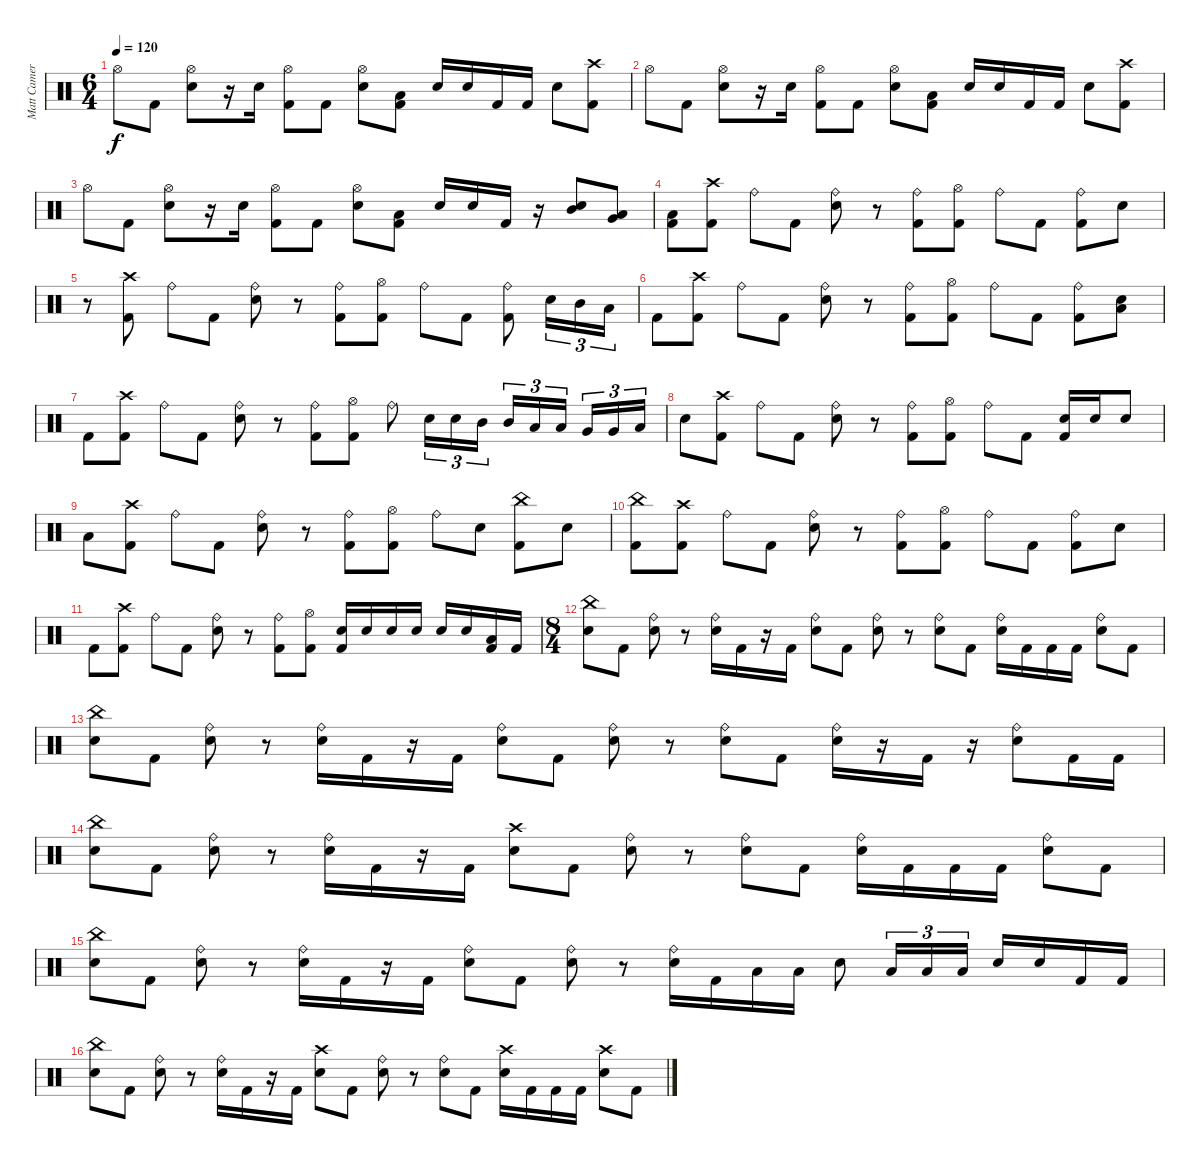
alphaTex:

\track ("Matt Cameron (Drums)" "Matt Camer") {instrument percussion}
\staff {score}
\articulation defaults
\ts (6 4)
\tempo 120
\clef neutral
\ks c "Hi-Hat (open)".8{dy f} "Kick (hit) 2".8
("Hi-Hat (open)" "Electric Snare (hit)").8 r.16 "Electric Snare (hit)".16 ("Hi-Hat (open)" "Kick (hit) 2").8 "Kick (hit) 2".8 ("Hi-Hat (open)" "Electric Snare (hit)").8 ("Low Floor Tom (hit)" "Kick (hit) 2").8 "Electric Snare (hit)".16 "Electric Snare (hit)".16 "Kick (hit) 2".16 "Kick (hit) 2".16 "Electric Snare (hit)".8 ("Crash high (hit)" "Kick (hit) 2").8 |
"Hi-Hat (open)".8 "Kick (hit) 2".8 ("Hi-Hat (open)" "Electric Snare (hit)").8 r.16 "Electric Snare (hit)".16 ("Hi-Hat (open)" "Kick (hit) 2").8 "Kick (hit) 2".8 ("Hi-Hat (open)" "Electric Snare (hit)").8 ("Low Floor Tom (hit)" "Kick (hit) 2").8 "Electric Snare (hit)".16 "Electric Snare (hit)".16 "Kick (hit) 2".16 "Kick (hit) 2".16 "Electric Snare (hit)".8 ("Crash high (hit)" "Kick (hit) 2").8 |
"Hi-Hat (open)".8 "Kick (hit) 2".8 ("Hi-Hat (open)" "Electric Snare (hit)").8 r.16 "Electric Snare (hit)".16 ("Hi-Hat (open)" "Kick (hit) 2").8 "Kick (hit) 2".8 ("Hi-Hat (open)" "Electric Snare (hit)").8 ("Low Floor Tom (hit)" "Kick (hit) 2").8 "Electric Snare (hit)".16 "Electric Snare (hit)".16 "Kick (hit) 2".16 r.16 ("Mid Tom (hit)" "Electric Snare (hit)").8 ("Low Tom (hit)" "Very Low Tom (hit)").8 |
("Low Tom (hit)" "Kick (hit) 2").8 ("Crash high (hit)" "Kick (hit) 2").8 "Ride (bell)".8 "Kick (hit) 2".8 ("Ride (bell)" "Electric Snare (hit)").8 r.8 ("Ride (bell)" "Kick (hit) 2").8 ("Hi-Hat (open)" "Kick (hit) 2").8 "Ride (bell)".8 "Kick (hit) 2".8 ("Ride (bell)" "Kick (hit) 2").8 "Electric Snare (hit)".8 |
r.8 ("Crash high (hit)" "Kick (hit) 2").8 "Ride (bell)".8 "Kick (hit) 2".8 ("Ride (bell)" "Electric Snare (hit)").8 r.8 ("Ride (bell)" "Kick (hit) 2").8 ("Hi-Hat (open)" "Kick (hit) 2").8 "Ride (bell)".8 "Kick (hit) 2".8 ("Ride (bell)" "Kick (hit) 2").8 "Electric Snare (hit)".16{tu (3 2)} "Mid Tom (hit)".16{tu (3 2)} "Low Tom (hit)".16{tu (3 2)} |
"Kick (hit) 2".8 ("Crash high (hit)" "Kick (hit) 2").8 "Ride (bell)".8 "Kick (hit) 2".8 ("Ride (bell)" "Electric Snare (hit)").8 r.8 ("Ride (bell)" "Kick (hit) 2").8 ("Hi-Hat (open)" "Kick (hit) 2").8 "Ride (bell)".8 "Kick (hit) 2".8 ("Ride (bell)" "Kick (hit) 2").8 ("Electric Snare (hit)" "Low Floor Tom (hit)").8 |
"Kick (hit) 2".8 ("Crash high (hit)" "Kick (hit) 2").8 "Ride (bell)".8 "Kick (hit) 2".8 ("Ride (bell)" "Electric Snare (hit)").8 r.8 ("Ride (bell)" "Kick (hit) 2").8 ("Hi-Hat (open)" "Kick (hit) 2").8 "Ride (bell)".8 "Electric Snare (hit)".16{tu (3 2)} "Electric Snare (hit)".16{tu (3 2)} "Mid Tom (hit)".16{tu (3 2)} "Mid Tom (hit)".16{tu (3 2)} "Low Tom (hit)".16{tu (3 2)} "Low Tom (hit)".16{tu (3 2)} "Very Low Tom (hit)".16{tu (3 2)} "Very Low Tom (hit)".16{tu (3 2)} "Low Floor Tom (hit)".16{tu (3 2)} |
"Electric Snare (hit)".8 ("Crash high (hit)" "Kick (hit) 2").8 "Ride (bell)".8 "Kick (hit) 2".8 ("Ride (bell)" "Electric Snare (hit)").8 r.8 ("Ride (bell)" "Kick (hit) 2").8 ("Hi-Hat (open)" "Kick (hit) 2").8 "Ride (bell)".8 "Kick (hit) 2".8 ("Electric Snare (hit)" "Kick (hit) 2").16 "Electric Snare (hit)".16 "Electric Snare (hit)".8 |
"Low Floor Tom (hit)".8 ("Crash high (hit)" "Kick (hit) 2").8 "Ride (bell)".8 "Kick (hit) 2".8 ("Ride (bell)" "Electric Snare (hit)").8 r.8 ("Ride (bell)" "Kick (hit) 2").8 ("Hi-Hat (open)" "Kick (hit) 2").8 "Ride (bell)".8 "Electric Snare (hit)".8 ("China (hit)" "Kick (hit) 2").8 "Electric Snare (hit)".8 |
("China (hit)" "Kick (hit) 2").8 ("Crash high (hit)" "Kick (hit) 2").8 "Ride (bell)".8 "Kick (hit) 2".8 ("Ride (bell)" "Electric Snare (hit)").8 r.8 ("Ride (bell)" "Kick (hit) 2").8 ("Hi-Hat (open)" "Kick (hit) 2").8 "Ride (bell)".8 "Kick (hit) 2".8 ("Ride (bell)" "Kick (hit) 2").8 "Electric Snare (hit)".8 |
"Kick (hit) 2".8 ("Crash high (hit)" "Kick (hit) 2").8 "Ride (bell)".8 "Kick (hit) 2".8 ("Ride (bell)" "Electric Snare (hit)").8 r.8 ("Ride (bell)" "Kick (hit) 2").8 ("Hi-Hat (open)" "Kick (hit) 2").8 ("Electric Snare (hit)" "Kick (hit) 2").16 "Electric Snare (hit)".16 "Electric Snare (hit)".16 "Electric Snare (hit)".16 "Electric Snare (hit)".16 "Electric Snare (hit)".16 ("Low Floor Tom (hit)" "Kick (hit) 2").16 "Kick (hit) 2".16 |
\ts (8 4)
("China (hit)" "Electric Snare (hit)").8 "Kick (hit) 2".8 ("Ride (bell)" "Electric Snare (hit)").8 r.8 ("Ride (bell)" "Electric Snare (hit)").16 "Kick (hit) 2".16 r.16 "Kick (hit) 2".16 ("Ride (bell)" "Electric Snare (hit)").8 "Kick (hit) 2".8 ("Ride (bell)" "Electric Snare (hit)").8 r.8 ("Ride (bell)" "Electric Snare (hit)").8 "Kick (hit) 2".8 ("Ride (bell)" "Electric Snare (hit)").16 "Kick (hit) 2".16 "Kick (hit) 2".16 "Kick (hit) 2".16 ("Ride (bell)" "Electric Snare (hit)").8 "Kick (hit) 2".8 |
("China (hit)" "Electric Snare (hit)").8 "Kick (hit) 2".8 ("Ride (bell)" "Electric Snare (hit)").8 r.8 ("Ride (bell)" "Electric Snare (hit)").16 "Kick (hit) 2".16 r.16 "Kick (hit) 2".16 ("Ride (bell)" "Electric Snare (hit)").8 "Kick (hit) 2".8 ("Ride (bell)" "Electric Snare (hit)").8 r.8 ("Ride (bell)" "Electric Snare (hit)").8 "Kick (hit) 2".8 ("Ride (bell)" "Electric Snare (hit)").16 r.16 "Kick (hit) 2".16 r.16 ("Ride (bell)" "Electric Snare (hit)").8 "Kick (hit) 2".16 "Kick (hit) 2".16 |
("China (hit)" "Electric Snare (hit)").8 "Kick (hit) 2".8 ("Ride (bell)" "Electric Snare (hit)").8 r.8 ("Ride (bell)" "Electric Snare (hit)").16 "Kick (hit) 2".16 r.16 "Kick (hit) 2".16 ("Crash high (hit)" "Electric Snare (hit)").8 "Kick (hit) 2".8 ("Ride (bell)" "Electric Snare (hit)").8 r.8 ("Ride (bell)" "Electric Snare (hit)").8 "Kick (hit) 2".8 ("Ride (bell)" "Electric Snare (hit)").16 "Kick (hit) 2".16 "Kick (hit) 2".16 "Kick (hit) 2".16 ("Ride (bell)" "Electric Snare (hit)").8 "Kick (hit) 2".8 |
("China (hit)" "Electric Snare (hit)").8 "Kick (hit) 2".8 ("Ride (bell)" "Electric Snare (hit)").8 r.8 ("Ride (bell)" "Electric Snare (hit)").16 "Kick (hit) 2".16 r.16 "Kick (hit) 2".16 ("Ride (bell)" "Electric Snare (hit)").8 "Kick (hit) 2".8 ("Ride (bell)" "Electric Snare (hit)").8 r.8 ("Ride (bell)" "Electric Snare (hit)").16 "Kick (hit) 2".16 "Low Floor Tom (hit)".16 "Low Floor Tom (hit)".16 "Electric Snare (hit)".8 "Low Floor Tom (hit)".16{tu (3 2)} "Low Floor Tom (hit)".16{tu (3 2)} "Low Floor Tom (hit)".16{tu (3 2)} "Electric Snare (hit)".16 "Electric Snare (hit)".16 "Kick (hit) 2".16 "Kick (hit) 2".16 |
("China (hit)" "Electric Snare (hit)").8 "Kick (hit) 2".8 ("Ride (bell)" "Electric Snare (hit)").8 r.8 ("Ride (bell)" "Electric Snare (hit)").16 "Kick (hit) 2".16 r.16 "Kick (hit) 2".16 ("Crash high (hit)" "Electric Snare (hit)").8 "Kick (hit) 2".8 ("Ride (bell)" "Electric Snare (hit)").8 r.8 ("Ride (bell)" "Electric Snare (hit)").8 "Kick (hit) 2".8 ("Crash high (hit)" "Electric Snare (hit)").16 "Kick (hit) 2".16 "Kick (hit) 2".16 "Kick (hit) 2".16 ("Crash high (hit)" "Electric Snare (hit)").8 "Kick (hit) 2".8
